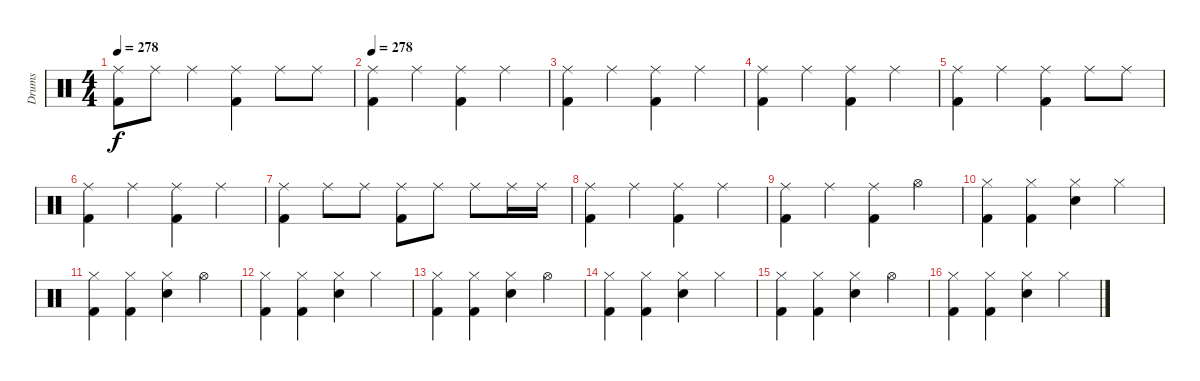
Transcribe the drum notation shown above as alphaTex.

\track ("Drums" "Drums") {instrument percussion}
\staff {score}
\articulation defaults
\ts (4 4)
\tempo 278
\clef neutral
\ks c
("Ride (middle)" "Kick (hit) 2").8{dy f} "Ride (middle)".8 "Ride (middle)".4 ("Ride (middle)" "Kick (hit) 2").4 "Ride (middle)".8 "Ride (middle)".8 |
\tempo 278
("Ride (middle)" "Kick (hit) 2").4 "Ride (middle)".4 ("Ride (middle)" "Kick (hit) 2").4 "Ride (middle)".4 |
("Ride (middle)" "Kick (hit) 2").4 "Ride (middle)".4 ("Ride (middle)" "Kick (hit) 2").4 "Ride (middle)".4 |
("Ride (middle)" "Kick (hit) 2").4 "Ride (middle)".4 ("Ride (middle)" "Kick (hit) 2").4 "Ride (middle)".4 |
("Ride (middle)" "Kick (hit) 2").4 "Ride (middle)".4 ("Ride (middle)" "Kick (hit) 2").4 "Ride (middle)".8 "Ride (middle)".8 |
("Ride (middle)" "Kick (hit) 2").4 "Ride (middle)".4 ("Ride (middle)" "Kick (hit) 2").4 "Ride (middle)".4 |
("Ride (middle)" "Kick (hit) 2").4 "Ride (middle)".8 "Ride (middle)".8 ("Ride (middle)" "Kick (hit) 2").8 "Ride (middle)".8 "Ride (middle)".8 "Ride (middle)".16 "Ride (middle)".16 |
("Ride (middle)" "Kick (hit) 2").4 "Ride (middle)".4 ("Ride (middle)" "Kick (hit) 2").4 "Ride (middle)".4 |
("Ride (middle)" "Kick (hit) 2").4 "Ride (middle)".4 ("Ride (middle)" "Kick (hit) 2").4 "Hi-Hat (open)".4 |
("Hi-Hat (closed)" "Kick (hit) 2").4 ("Hi-Hat (closed)" "Kick (hit) 2").4 ("Hi-Hat (closed)" "Electric Snare (hit)").4 "Hi-Hat (closed)".4 |
("Hi-Hat (closed)" "Kick (hit) 2").4 ("Hi-Hat (closed)" "Kick (hit) 2").4 ("Hi-Hat (closed)" "Electric Snare (hit)").4 "Hi-Hat (open)".4 |
("Hi-Hat (closed)" "Kick (hit) 2").4 ("Hi-Hat (closed)" "Kick (hit) 2").4 ("Hi-Hat (closed)" "Electric Snare (hit)").4 "Hi-Hat (closed)".4 |
("Hi-Hat (closed)" "Kick (hit) 2").4 ("Hi-Hat (closed)" "Kick (hit) 2").4 ("Hi-Hat (closed)" "Electric Snare (hit)").4 "Hi-Hat (open)".4 |
("Hi-Hat (closed)" "Kick (hit) 2").4 ("Hi-Hat (closed)" "Kick (hit) 2").4 ("Hi-Hat (closed)" "Electric Snare (hit)").4 "Hi-Hat (closed)".4 |
("Hi-Hat (closed)" "Kick (hit) 2").4 ("Hi-Hat (closed)" "Kick (hit) 2").4 ("Hi-Hat (closed)" "Electric Snare (hit)").4 "Hi-Hat (open)".4 |
("Hi-Hat (closed)" "Kick (hit) 2").4 ("Hi-Hat (closed)" "Kick (hit) 2").4 ("Hi-Hat (closed)" "Electric Snare (hit)").4 "Hi-Hat (closed)".4
